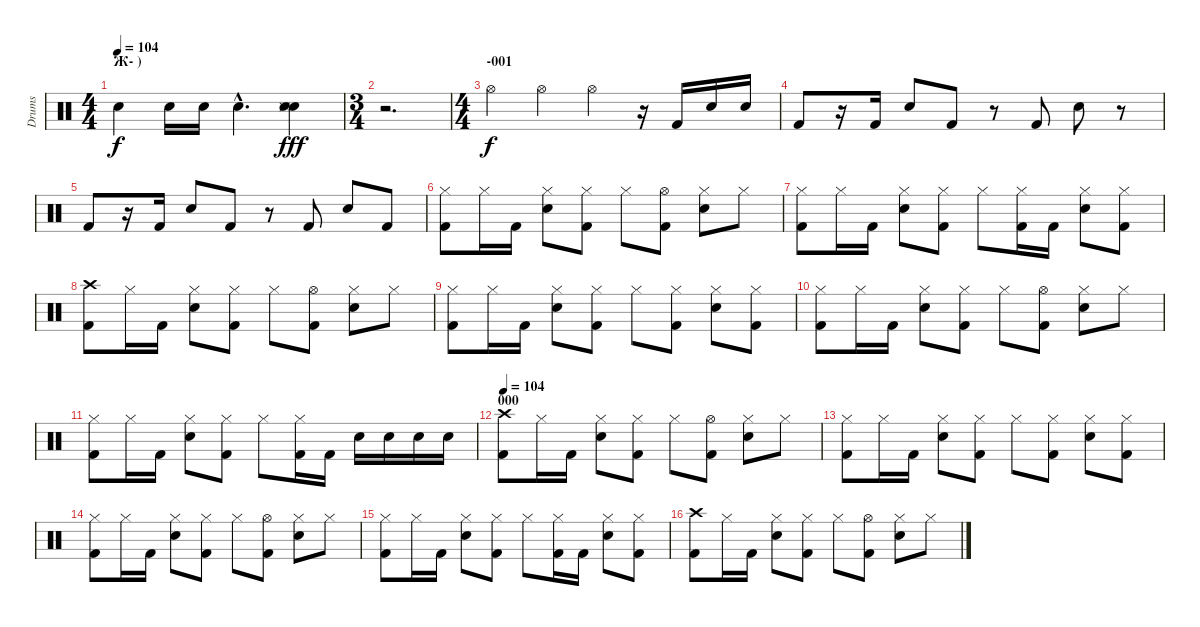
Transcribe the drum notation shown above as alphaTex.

\track ("Drums" "Drums") {instrument percussion}
\staff {score}
\articulation defaults
\ts (4 4)
\section ("" "Ж- )")
\tempo 104
\clef neutral
\ks c "Snare (hit)".4{dy f} "Snare (hit)".16 "Snare (hit)".16 "Snare (hit)"{hac}.4{d}
("Snare (hit)" "Snare (hit)" "Snare (side stick) 3").4{dy fff} |
\ts (3 4)
r.2{d} |
\ts (4 4)
\section ("" "-001")
"Hi-Hat (open)".4{dy f} "Hi-Hat (open)".4 "Hi-Hat (open)".4 r.16 "Kick (hit) 2".16 "Electric Snare (hit)".16 "Electric Snare (hit)".16 |
"Kick (hit) 2".8 r.16 "Kick (hit) 2".16 "Electric Snare (hit)".8 "Kick (hit) 2".8 r.8 "Kick (hit) 2".8 "Electric Snare (hit)".8 r.8 |
"Kick (hit) 2".8 r.16 "Kick (hit) 2".16 "Electric Snare (hit)".8 "Kick (hit) 2".8 r.8 "Kick (hit) 2".8 "Electric Snare (hit)".8 "Kick (hit) 2".8 |
("Hi-Hat (closed)" "Kick (hit) 2").8 "Hi-Hat (closed)".16 "Kick (hit) 2".16 ("Hi-Hat (closed)" "Electric Snare (hit)").8 ("Hi-Hat (closed)" "Kick (hit) 2").8 "Hi-Hat (closed)".8 ("Hi-Hat (open)" "Kick (hit) 2").8 ("Hi-Hat (closed)" "Electric Snare (hit)").8 "Hi-Hat (closed)".8 |
("Hi-Hat (closed)" "Kick (hit) 2").8 "Hi-Hat (closed)".16 "Kick (hit) 2".16 ("Hi-Hat (closed)" "Electric Snare (hit)").8 ("Hi-Hat (closed)" "Kick (hit) 2").8 "Hi-Hat (closed)".8 ("Hi-Hat (closed)" "Kick (hit) 2").16 "Kick (hit) 2".16 ("Hi-Hat (closed)" "Electric Snare (hit)").8 ("Hi-Hat (closed)" "Kick (hit) 2").8 |
("Crash high (hit)" "Kick (hit) 2").8 "Hi-Hat (closed)".16 "Kick (hit) 2".16 ("Hi-Hat (closed)" "Electric Snare (hit)").8 ("Hi-Hat (closed)" "Kick (hit) 2").8 "Hi-Hat (closed)".8 ("Hi-Hat (open)" "Kick (hit) 2").8 ("Hi-Hat (closed)" "Electric Snare (hit)").8 "Hi-Hat (closed)".8 |
("Hi-Hat (closed)" "Kick (hit) 2").8 "Hi-Hat (closed)".16 "Kick (hit) 2".16 ("Hi-Hat (closed)" "Electric Snare (hit)").8 ("Hi-Hat (closed)" "Kick (hit) 2").8 "Hi-Hat (closed)".8 ("Hi-Hat (closed)" "Kick (hit) 2").8 ("Hi-Hat (closed)" "Electric Snare (hit)").8 ("Hi-Hat (closed)" "Kick (hit) 2").8 |
("Hi-Hat (closed)" "Kick (hit) 2").8 "Hi-Hat (closed)".16 "Kick (hit) 2".16 ("Hi-Hat (closed)" "Electric Snare (hit)").8 ("Hi-Hat (closed)" "Kick (hit) 2").8 "Hi-Hat (closed)".8 ("Hi-Hat (open)" "Kick (hit) 2").8 ("Hi-Hat (closed)" "Electric Snare (hit)").8 "Hi-Hat (closed)".8 |
("Hi-Hat (closed)" "Kick (hit) 2").8 "Hi-Hat (closed)".16 "Kick (hit) 2".16 ("Hi-Hat (closed)" "Electric Snare (hit)").8 ("Hi-Hat (closed)" "Kick (hit) 2").8 "Hi-Hat (closed)".8 ("Hi-Hat (closed)" "Kick (hit) 2").16 "Kick (hit) 2".16 "Electric Snare (hit)".16 "Electric Snare (hit)".16 "Electric Snare (hit)".16 "Electric Snare (hit)".16 |
\section ("" "000")
\tempo 104
("Crash high (hit)" "Kick (hit) 2").8 "Hi-Hat (closed)".16 "Kick (hit) 2".16 ("Hi-Hat (closed)" "Electric Snare (hit)").8 ("Hi-Hat (closed)" "Kick (hit) 2").8 "Hi-Hat (closed)".8 ("Hi-Hat (open)" "Kick (hit) 2").8 ("Hi-Hat (closed)" "Electric Snare (hit)").8 "Hi-Hat (closed)".8 |
("Hi-Hat (closed)" "Kick (hit) 2").8 "Hi-Hat (closed)".16 "Kick (hit) 2".16 ("Hi-Hat (closed)" "Electric Snare (hit)").8 ("Hi-Hat (closed)" "Kick (hit) 2").8 "Hi-Hat (closed)".8 ("Hi-Hat (closed)" "Kick (hit) 2").8 ("Hi-Hat (closed)" "Electric Snare (hit)").8 ("Hi-Hat (closed)" "Kick (hit) 2").8 |
("Hi-Hat (closed)" "Kick (hit) 2").8 "Hi-Hat (closed)".16 "Kick (hit) 2".16 ("Hi-Hat (closed)" "Electric Snare (hit)").8 ("Hi-Hat (closed)" "Kick (hit) 2").8 "Hi-Hat (closed)".8 ("Hi-Hat (open)" "Kick (hit) 2").8 ("Hi-Hat (closed)" "Electric Snare (hit)").8 "Hi-Hat (closed)".8 |
("Hi-Hat (closed)" "Kick (hit) 2").8 "Hi-Hat (closed)".16 "Kick (hit) 2".16 ("Hi-Hat (closed)" "Electric Snare (hit)").8 ("Hi-Hat (closed)" "Kick (hit) 2").8 "Hi-Hat (closed)".8 ("Hi-Hat (closed)" "Kick (hit) 2").16 "Kick (hit) 2".16 ("Hi-Hat (closed)" "Electric Snare (hit)").8 ("Hi-Hat (closed)" "Kick (hit) 2").8 |
("Crash high (hit)" "Kick (hit) 2").8 "Hi-Hat (closed)".16 "Kick (hit) 2".16 ("Hi-Hat (closed)" "Electric Snare (hit)").8 ("Hi-Hat (closed)" "Kick (hit) 2").8 "Hi-Hat (closed)".8 ("Hi-Hat (open)" "Kick (hit) 2").8 ("Hi-Hat (closed)" "Electric Snare (hit)").8 "Hi-Hat (closed)".8
